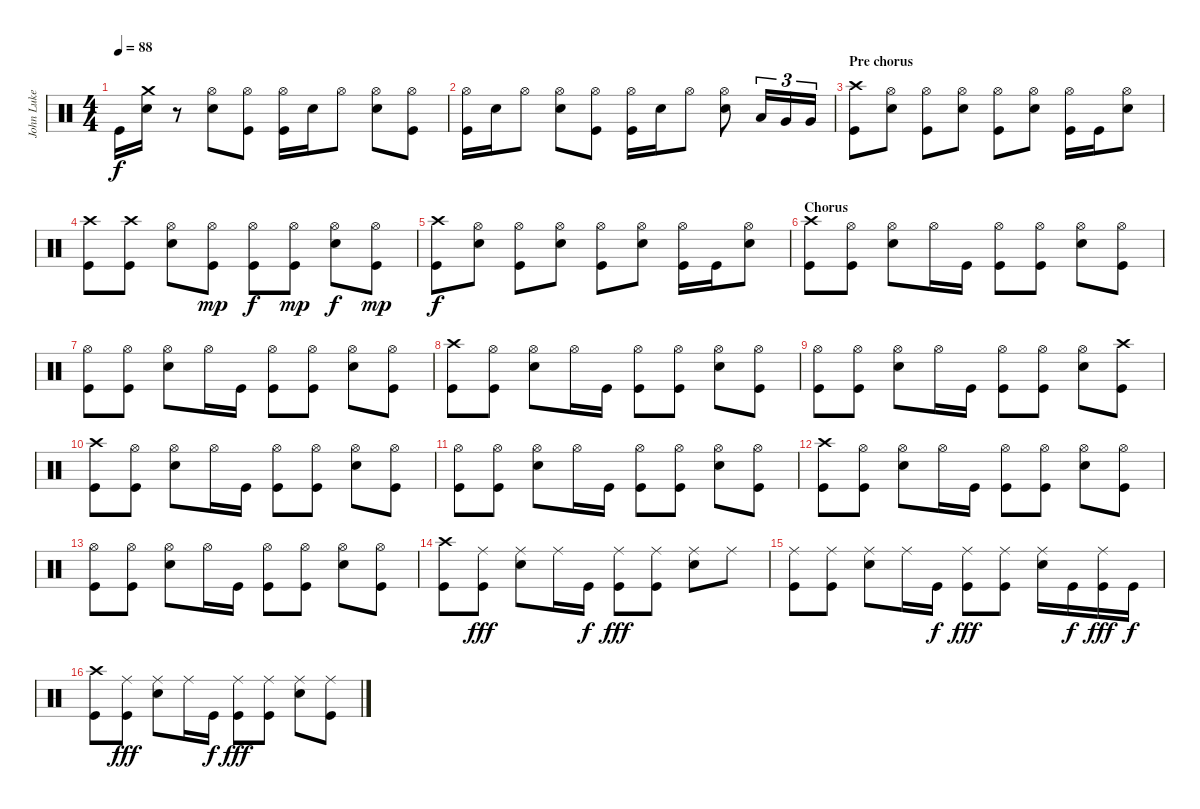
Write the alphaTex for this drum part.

\track ("John Luke (Drums)" "John Luke ") {instrument percussion}
\staff {score}
\articulation defaults
\ts (4 4)
\tempo 88
\clef neutral
\ks c "Kick (hit)".16{dy f}
("Crash medium (hit)" "Electric Snare (hit)").16 r.8 ("Hi-Hat (open)" "Electric Snare (hit)").8 ("Hi-Hat (open)" "Kick (hit)").8 ("Hi-Hat (open)" "Kick (hit)").16 "Electric Snare (hit)".16 "Hi-Hat (open)".8 ("Hi-Hat (open)" "Electric Snare (hit)").8 ("Hi-Hat (open)" "Kick (hit)").8 |
("Hi-Hat (open)" "Kick (hit)").16 "Electric Snare (hit)".16 "Hi-Hat (open)".8 ("Hi-Hat (open)" "Electric Snare (hit)").8 ("Hi-Hat (open)" "Kick (hit)").8 ("Hi-Hat (open)" "Kick (hit)").16 "Electric Snare (hit)".16 "Hi-Hat (open)".8 ("Hi-Hat (open)" "Electric Snare (hit)").8 "Low Tom (hit)".16{tu (3 2)} "Very Low Tom (hit)".16{tu (3 2)} "Very Low Tom (hit)".16{tu (3 2)} |
\section ("" "Pre chorus")
("Crash high (hit)" "Kick (hit)").8 ("Hi-Hat (open)" "Electric Snare (hit)").8 ("Hi-Hat (open)" "Kick (hit)").8 ("Hi-Hat (open)" "Electric Snare (hit)").8 ("Hi-Hat (open)" "Kick (hit)").8 ("Hi-Hat (open)" "Electric Snare (hit)").8 ("Hi-Hat (open)" "Kick (hit)").16 "Kick (hit)".16 ("Hi-Hat (open)" "Electric Snare (hit)").8 |
("Crash high (hit)" "Kick (hit)").8 ("Crash high (hit)" "Kick (hit)").8 ("Hi-Hat (open)" "Electric Snare (hit)").8 ("Hi-Hat (open)" "Kick (hit)").8{dy mp} ("Hi-Hat (open)" "Kick (hit)").8{dy f} ("Hi-Hat (open)" "Kick (hit)").8{dy mp} ("Hi-Hat (open)" "Electric Snare (hit)").8{dy f} ("Hi-Hat (open)" "Kick (hit)").8{dy mp} |
("Crash high (hit)" "Kick (hit)").8{dy f} ("Hi-Hat (open)" "Electric Snare (hit)").8 ("Hi-Hat (open)" "Kick (hit)").8 ("Hi-Hat (open)" "Electric Snare (hit)").8 ("Hi-Hat (open)" "Kick (hit)").8 ("Hi-Hat (open)" "Electric Snare (hit)").8 ("Hi-Hat (open)" "Kick (hit)").16 "Kick (hit)".16 ("Hi-Hat (open)" "Electric Snare (hit)").8 |
\section ("" "Chorus")
("Crash high (hit)" "Kick (hit)").8 ("Hi-Hat (open)" "Kick (hit)").8 ("Hi-Hat (open)" "Electric Snare (hit)").8 "Hi-Hat (open)".16 "Kick (hit)".16 ("Hi-Hat (open)" "Kick (hit)").8 ("Hi-Hat (open)" "Kick (hit)").8 ("Hi-Hat (open)" "Electric Snare (hit)").8 ("Hi-Hat (open)" "Kick (hit)").8 |
("Hi-Hat (open)" "Kick (hit)").8 ("Hi-Hat (open)" "Kick (hit)").8 ("Hi-Hat (open)" "Electric Snare (hit)").8 "Hi-Hat (open)".16 "Kick (hit)".16 ("Hi-Hat (open)" "Kick (hit)").8 ("Hi-Hat (open)" "Kick (hit)").8 ("Hi-Hat (open)" "Electric Snare (hit)").8 ("Hi-Hat (open)" "Kick (hit)").8 |
("Crash high (hit)" "Kick (hit)").8 ("Hi-Hat (open)" "Kick (hit)").8 ("Hi-Hat (open)" "Electric Snare (hit)").8 "Hi-Hat (open)".16 "Kick (hit)".16 ("Hi-Hat (open)" "Kick (hit)").8 ("Hi-Hat (open)" "Kick (hit)").8 ("Hi-Hat (open)" "Electric Snare (hit)").8 ("Hi-Hat (open)" "Kick (hit)").8 |
("Hi-Hat (open)" "Kick (hit)").8 ("Hi-Hat (open)" "Kick (hit)").8 ("Hi-Hat (open)" "Electric Snare (hit)").8 "Hi-Hat (open)".16 "Kick (hit)".16 ("Hi-Hat (open)" "Kick (hit)").8 ("Hi-Hat (open)" "Kick (hit)").8 ("Hi-Hat (open)" "Electric Snare (hit)").8 ("Crash high (hit)" "Kick (hit)").8 |
("Crash high (hit)" "Kick (hit)").8 ("Hi-Hat (open)" "Kick (hit)").8 ("Hi-Hat (open)" "Electric Snare (hit)").8 "Hi-Hat (open)".16 "Kick (hit)".16 ("Hi-Hat (open)" "Kick (hit)").8 ("Hi-Hat (open)" "Kick (hit)").8 ("Hi-Hat (open)" "Electric Snare (hit)").8 ("Hi-Hat (open)" "Kick (hit)").8 |
("Hi-Hat (open)" "Kick (hit)").8 ("Hi-Hat (open)" "Kick (hit)").8 ("Hi-Hat (open)" "Electric Snare (hit)").8 "Hi-Hat (open)".16 "Kick (hit)".16 ("Hi-Hat (open)" "Kick (hit)").8 ("Hi-Hat (open)" "Kick (hit)").8 ("Hi-Hat (open)" "Electric Snare (hit)").8 ("Hi-Hat (open)" "Kick (hit)").8 |
("Crash high (hit)" "Kick (hit)").8 ("Hi-Hat (open)" "Kick (hit)").8 ("Hi-Hat (open)" "Electric Snare (hit)").8 "Hi-Hat (open)".16 "Kick (hit)".16 ("Hi-Hat (open)" "Kick (hit)").8 ("Hi-Hat (open)" "Kick (hit)").8 ("Hi-Hat (open)" "Electric Snare (hit)").8 ("Hi-Hat (open)" "Kick (hit)").8 |
("Hi-Hat (open)" "Kick (hit)").8 ("Hi-Hat (open)" "Kick (hit)").8 ("Hi-Hat (open)" "Electric Snare (hit)").8 "Hi-Hat (open)".16 "Kick (hit)".16 ("Hi-Hat (open)" "Kick (hit)").8 ("Hi-Hat (open)" "Kick (hit)").8 ("Hi-Hat (open)" "Electric Snare (hit)").8 ("Hi-Hat (open)" "Kick (hit)").8 |
("Crash high (hit)" "Kick (hit)").8 ("Ride (middle)" "Kick (hit)").8{dy fff} ("Ride (middle)" "Electric Snare (hit)").8 "Ride (middle)".16 "Kick (hit)".16{dy f} ("Ride (middle)" "Kick (hit)").8{dy fff} ("Ride (middle)" "Kick (hit)").8 ("Ride (middle)" "Electric Snare (hit)").8 "Ride (middle)".8 |
("Ride (middle)" "Kick (hit)").8 ("Ride (middle)" "Kick (hit)").8 ("Ride (middle)" "Electric Snare (hit)").8 "Ride (middle)".16 "Kick (hit)".16{dy f} ("Ride (middle)" "Kick (hit)").8{dy fff} ("Ride (middle)" "Kick (hit)").8 ("Ride (middle)" "Electric Snare (hit)").16 "Kick (hit)".16{dy f} ("Ride (middle)" "Kick (hit)").16{dy fff} "Kick (hit)".16{dy f} |
("Crash high (hit)" "Kick (hit)").8 ("Ride (middle)" "Kick (hit)").8{dy fff} ("Ride (middle)" "Electric Snare (hit)").8 "Ride (middle)".16 "Kick (hit)".16{dy f} ("Ride (middle)" "Kick (hit)").8{dy fff} ("Ride (middle)" "Kick (hit)").8 ("Ride (middle)" "Electric Snare (hit)").8 ("Ride (middle)" "Kick (hit)").8
